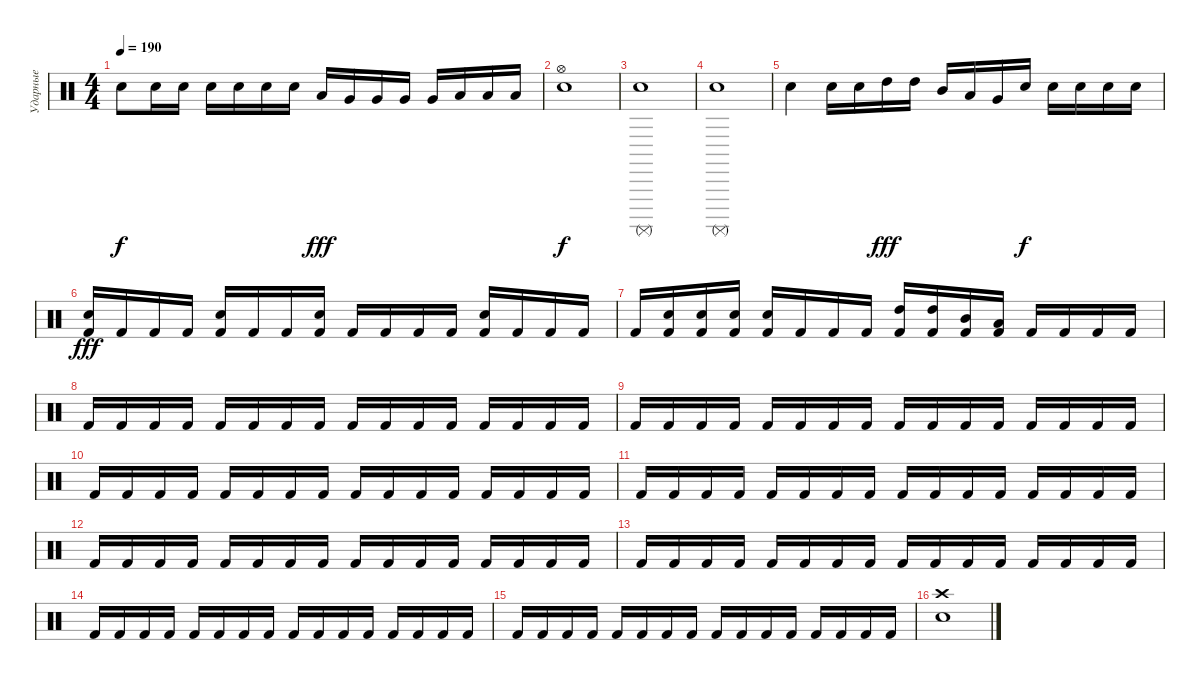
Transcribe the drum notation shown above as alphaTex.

\track ("Ударные" "Ударные") {instrument percussion}
\staff {score}
\articulation defaults
\ts (4 4)
\tempo 190
\clef neutral
\ks c "Snare (hit)"{t}.8{dy f} "Electric Snare (hit)".16 "Electric Snare (hit)".16 "Electric Snare (hit)".16 "Electric Snare (hit)".16 "Electric Snare (hit)".16 "Electric Snare (hit)".16 "Low Tom (hit)".16{dy fff} "Very Low Tom (hit)".16 "Very Low Tom (hit)".16 "Very Low Tom (hit)".16 "Very Low Tom (hit)".16 "Low Floor Tom (hit)".16 "Low Floor Tom (hit)".16 "Low Floor Tom (hit)".16
|
("Snare (hit) 2" "Hi-Hat (open)").1{dy f} |
("Snare (hit) 2" "Surdo (mute)").1 |
("Snare (hit) 2" "Surdo (mute)").1 |
"Snare (hit) 2".4 "Snare (hit) 2".16 "Snare (hit) 2".16 "High Tom (hit)".16{dy fff} "High Tom (hit)".16 "Mid Tom (hit)".16 "Low Tom (hit)".16 "Very Low Tom (hit)".16 "Electric Snare (hit)".16{dy f} "Electric Snare (hit)".16 "Electric Snare (hit)".16 "Electric Snare (hit)".16 "Electric Snare (hit)".16 |
("Kick (hit) 2" "Snare (hit) 2").16{dy fff} "Kick (hit) 2".16 "Kick (hit) 2".16 "Kick (hit) 2".16 ("Kick (hit) 2" "Snare (hit) 2").16 "Kick (hit) 2".16 "Kick (hit) 2".16 ("Kick (hit) 2" "Snare (hit) 2").16 "Kick (hit) 2".16 "Kick (hit) 2".16 "Kick (hit) 2".16 "Kick (hit) 2".16 ("Kick (hit) 2" "Snare (hit) 2").16 "Kick (hit) 2".16 "Kick (hit) 2".16 "Kick (hit) 2".16 |
"Kick (hit) 2".16 ("Kick (hit) 2" "Snare (hit) 2").16 ("Kick (hit) 2" "Snare (hit) 2").16 ("Kick (hit) 2" "Snare (hit) 2").16 ("Kick (hit) 2" "Snare (hit) 2").16 "Kick (hit) 2".16 "Kick (hit) 2".16 "Kick (hit) 2".16 ("Kick (hit) 2" "High Tom (hit)").16 ("Kick (hit) 2" "High Tom (hit)").16 ("Kick (hit) 2" "Mid Tom (hit)").16 ("Kick (hit) 2" "Low Tom (hit)").16 "Kick (hit) 2".16 "Kick (hit) 2".16 "Kick (hit) 2".16 "Kick (hit) 2".16 |
"Kick (hit) 2".16 "Kick (hit) 2".16 "Kick (hit) 2".16 "Kick (hit) 2".16 "Kick (hit) 2".16 "Kick (hit) 2".16 "Kick (hit) 2".16 "Kick (hit) 2".16 "Kick (hit) 2".16 "Kick (hit) 2".16 "Kick (hit) 2".16 "Kick (hit) 2".16 "Kick (hit) 2".16 "Kick (hit) 2".16 "Kick (hit) 2".16 "Kick (hit) 2".16 |
"Kick (hit) 2".16 "Kick (hit) 2".16 "Kick (hit) 2".16 "Kick (hit) 2".16 "Kick (hit) 2".16 "Kick (hit) 2".16 "Kick (hit) 2".16 "Kick (hit) 2".16 "Kick (hit) 2".16 "Kick (hit) 2".16 "Kick (hit) 2".16 "Kick (hit) 2".16 "Kick (hit) 2".16 "Kick (hit) 2".16 "Kick (hit) 2".16 "Kick (hit) 2".16 |
"Kick (hit) 2".16 "Kick (hit) 2".16 "Kick (hit) 2".16 "Kick (hit) 2".16 "Kick (hit) 2".16 "Kick (hit) 2".16 "Kick (hit) 2".16 "Kick (hit) 2".16 "Kick (hit) 2".16 "Kick (hit) 2".16 "Kick (hit) 2".16 "Kick (hit) 2".16 "Kick (hit) 2".16 "Kick (hit) 2".16 "Kick (hit) 2".16 "Kick (hit) 2".16 |
"Kick (hit) 2".16 "Kick (hit) 2".16 "Kick (hit) 2".16 "Kick (hit) 2".16 "Kick (hit) 2".16 "Kick (hit) 2".16 "Kick (hit) 2".16 "Kick (hit) 2".16 "Kick (hit) 2".16 "Kick (hit) 2".16 "Kick (hit) 2".16 "Kick (hit) 2".16 "Kick (hit) 2".16 "Kick (hit) 2".16 "Kick (hit) 2".16 "Kick (hit) 2".16 |
"Kick (hit) 2".16 "Kick (hit) 2".16 "Kick (hit) 2".16 "Kick (hit) 2".16 "Kick (hit) 2".16 "Kick (hit) 2".16 "Kick (hit) 2".16 "Kick (hit) 2".16 "Kick (hit) 2".16 "Kick (hit) 2".16 "Kick (hit) 2".16 "Kick (hit) 2".16 "Kick (hit) 2".16 "Kick (hit) 2".16 "Kick (hit) 2".16 "Kick (hit) 2".16 |
"Kick (hit) 2".16 "Kick (hit) 2".16 "Kick (hit) 2".16 "Kick (hit) 2".16 "Kick (hit) 2".16 "Kick (hit) 2".16 "Kick (hit) 2".16 "Kick (hit) 2".16 "Kick (hit) 2".16 "Kick (hit) 2".16 "Kick (hit) 2".16 "Kick (hit) 2".16 "Kick (hit) 2".16 "Kick (hit) 2".16 "Kick (hit) 2".16 "Kick (hit) 2".16 |
"Kick (hit) 2".16 "Kick (hit) 2".16 "Kick (hit) 2".16 "Kick (hit) 2".16 "Kick (hit) 2".16 "Kick (hit) 2".16 "Kick (hit) 2".16 "Kick (hit) 2".16 "Kick (hit) 2".16 "Kick (hit) 2".16 "Kick (hit) 2".16 "Kick (hit) 2".16 "Kick (hit) 2".16 "Kick (hit) 2".16 "Kick (hit) 2".16 "Kick (hit) 2".16 |
"Kick (hit) 2".16 "Kick (hit) 2".16 "Kick (hit) 2".16 "Kick (hit) 2".16 "Kick (hit) 2".16 "Kick (hit) 2".16 "Kick (hit) 2".16 "Kick (hit) 2".16 "Kick (hit) 2".16 "Kick (hit) 2".16 "Kick (hit) 2".16 "Kick (hit) 2".16 "Kick (hit) 2".16 "Kick (hit) 2".16 "Kick (hit) 2".16 "Kick (hit) 2".16 |
("Snare (hit) 2" "Crash high (hit)").1
